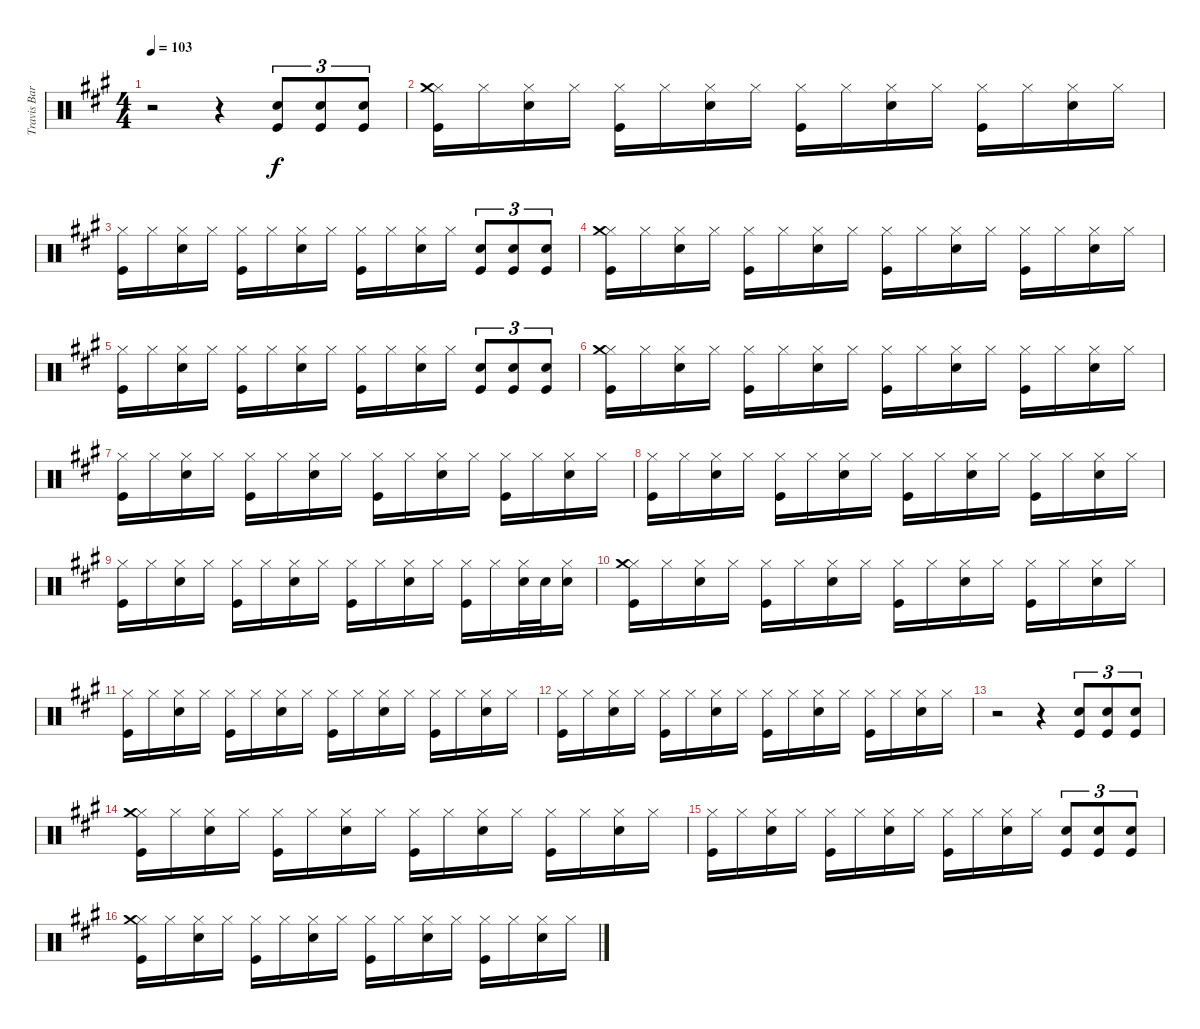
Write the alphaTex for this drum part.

\track ("Travis Barker (Schlagzeug)" "Travis Bar") {instrument percussion}
\staff {score}
\articulation defaults
\ts (4 4)
\tempo 103
\clef neutral
\ks a
r.2{dy f} r.4 ("Snare (hit) 2" "Kick (hit)").8{tu (3 2)} ("Snare (hit) 2" "Kick (hit)").8{tu (3 2)} ("Snare (hit) 2" "Kick (hit)").8{tu (3 2)} |
("Hi-Hat (closed)" "Crash medium (hit)" "Kick (hit)").16 "Hi-Hat (closed)".16 ("Hi-Hat (closed)" "Snare (hit) 2").16 "Hi-Hat (closed)".16 ("Hi-Hat (closed)" "Kick (hit)").16 "Hi-Hat (closed)".16 ("Hi-Hat (closed)" "Snare (hit) 2").16 "Hi-Hat (closed)".16 ("Hi-Hat (closed)" "Kick (hit)").16 "Hi-Hat (closed)".16 ("Hi-Hat (closed)" "Snare (hit) 2").16 "Hi-Hat (closed)".16 ("Hi-Hat (closed)" "Kick (hit)").16 "Hi-Hat (closed)".16 ("Hi-Hat (closed)" "Snare (hit) 2").16 "Hi-Hat (closed)".16 |
("Hi-Hat (closed)" "Kick (hit)").16 "Hi-Hat (closed)".16 ("Hi-Hat (closed)" "Snare (hit) 2").16 "Hi-Hat (closed)".16 ("Hi-Hat (closed)" "Kick (hit)").16 "Hi-Hat (closed)".16 ("Hi-Hat (closed)" "Snare (hit) 2").16 "Hi-Hat (closed)".16 ("Hi-Hat (closed)" "Kick (hit)").16 "Hi-Hat (closed)".16 ("Hi-Hat (closed)" "Snare (hit) 2").16 "Hi-Hat (closed)".16 ("Snare (hit) 2" "Kick (hit)").8{tu (3 2)} ("Snare (hit) 2" "Kick (hit)").8{tu (3 2)} ("Snare (hit) 2" "Kick (hit)").8{tu (3 2)} |
("Hi-Hat (closed)" "Crash medium (hit)" "Kick (hit)").16 "Hi-Hat (closed)".16 ("Hi-Hat (closed)" "Snare (hit) 2").16 "Hi-Hat (closed)".16 ("Hi-Hat (closed)" "Kick (hit)").16 "Hi-Hat (closed)".16 ("Hi-Hat (closed)" "Snare (hit) 2").16 "Hi-Hat (closed)".16 ("Hi-Hat (closed)" "Kick (hit)").16 "Hi-Hat (closed)".16 ("Hi-Hat (closed)" "Snare (hit) 2").16 "Hi-Hat (closed)".16 ("Hi-Hat (closed)" "Kick (hit)").16 "Hi-Hat (closed)".16 ("Hi-Hat (closed)" "Snare (hit) 2").16 "Hi-Hat (closed)".16 |
("Hi-Hat (closed)" "Kick (hit)").16 "Hi-Hat (closed)".16 ("Hi-Hat (closed)" "Snare (hit) 2").16 "Hi-Hat (closed)".16 ("Hi-Hat (closed)" "Kick (hit)").16 "Hi-Hat (closed)".16 ("Hi-Hat (closed)" "Snare (hit) 2").16 "Hi-Hat (closed)".16 ("Hi-Hat (closed)" "Kick (hit)").16 "Hi-Hat (closed)".16 ("Hi-Hat (closed)" "Snare (hit) 2").16 "Hi-Hat (closed)".16 ("Snare (hit) 2" "Kick (hit)").8{tu (3 2)} ("Snare (hit) 2" "Kick (hit)").8{tu (3 2)} ("Snare (hit) 2" "Kick (hit)").8{tu (3 2)} |
("Hi-Hat (closed)" "Crash medium (hit)" "Kick (hit)").16 "Hi-Hat (closed)".16 ("Hi-Hat (closed)" "Snare (hit) 2").16 "Hi-Hat (closed)".16 ("Hi-Hat (closed)" "Kick (hit)").16 "Hi-Hat (closed)".16 ("Hi-Hat (closed)" "Snare (hit) 2").16 "Hi-Hat (closed)".16 ("Hi-Hat (closed)" "Kick (hit)").16 "Hi-Hat (closed)".16 ("Hi-Hat (closed)" "Snare (hit) 2").16 "Hi-Hat (closed)".16 ("Hi-Hat (closed)" "Kick (hit)").16 "Hi-Hat (closed)".16 ("Hi-Hat (closed)" "Snare (hit) 2").16 "Hi-Hat (closed)".16 |
("Hi-Hat (closed)" "Kick (hit)").16 "Hi-Hat (closed)".16 ("Hi-Hat (closed)" "Snare (hit) 2").16 "Hi-Hat (closed)".16 ("Hi-Hat (closed)" "Kick (hit)").16 "Hi-Hat (closed)".16 ("Hi-Hat (closed)" "Snare (hit) 2").16 "Hi-Hat (closed)".16 ("Hi-Hat (closed)" "Kick (hit)").16 "Hi-Hat (closed)".16 ("Hi-Hat (closed)" "Snare (hit) 2").16 "Hi-Hat (closed)".16 ("Hi-Hat (closed)" "Kick (hit)").16 "Hi-Hat (closed)".16 ("Hi-Hat (closed)" "Snare (hit) 2").16 "Hi-Hat (closed)".16 |
("Hi-Hat (closed)" "Kick (hit)").16 "Hi-Hat (closed)".16 ("Hi-Hat (closed)" "Snare (hit) 2").16 "Hi-Hat (closed)".16 ("Hi-Hat (closed)" "Kick (hit)").16 "Hi-Hat (closed)".16 ("Hi-Hat (closed)" "Snare (hit) 2").16 "Hi-Hat (closed)".16 ("Hi-Hat (closed)" "Kick (hit)").16 "Hi-Hat (closed)".16 ("Hi-Hat (closed)" "Snare (hit) 2").16 "Hi-Hat (closed)".16 ("Hi-Hat (closed)" "Kick (hit)").16 "Hi-Hat (closed)".16 ("Hi-Hat (closed)" "Snare (hit) 2").16 "Hi-Hat (closed)".16 |
("Hi-Hat (closed)" "Kick (hit)").16 "Hi-Hat (closed)".16 ("Hi-Hat (closed)" "Snare (hit) 2").16 "Hi-Hat (closed)".16 ("Hi-Hat (closed)" "Kick (hit)").16 "Hi-Hat (closed)".16 ("Hi-Hat (closed)" "Snare (hit) 2").16 "Hi-Hat (closed)".16 ("Hi-Hat (closed)" "Kick (hit)").16 "Hi-Hat (closed)".16 ("Hi-Hat (closed)" "Snare (hit) 2").16 "Hi-Hat (closed)".16 ("Hi-Hat (closed)" "Kick (hit)").16 "Hi-Hat (closed)".16 ("Hi-Hat (closed)" "Snare (hit) 2").32 "Snare (hit) 2".32 ("Hi-Hat (closed)" "Snare (hit) 2").16 |
("Hi-Hat (closed)" "Crash medium (hit)" "Kick (hit)").16 "Hi-Hat (closed)".16 ("Hi-Hat (closed)" "Snare (hit) 2").16 "Hi-Hat (closed)".16 ("Hi-Hat (closed)" "Kick (hit)").16 "Hi-Hat (closed)".16 ("Hi-Hat (closed)" "Snare (hit) 2").16 "Hi-Hat (closed)".16 ("Hi-Hat (closed)" "Kick (hit)").16 "Hi-Hat (closed)".16 ("Hi-Hat (closed)" "Snare (hit) 2").16 "Hi-Hat (closed)".16 ("Hi-Hat (closed)" "Kick (hit)").16 "Hi-Hat (closed)".16 ("Hi-Hat (closed)" "Snare (hit) 2").16 "Hi-Hat (closed)".16 |
("Hi-Hat (closed)" "Kick (hit)").16 "Hi-Hat (closed)".16 ("Hi-Hat (closed)" "Snare (hit) 2").16 "Hi-Hat (closed)".16 ("Hi-Hat (closed)" "Kick (hit)").16 "Hi-Hat (closed)".16 ("Hi-Hat (closed)" "Snare (hit) 2").16 "Hi-Hat (closed)".16 ("Hi-Hat (closed)" "Kick (hit)").16 "Hi-Hat (closed)".16 ("Hi-Hat (closed)" "Snare (hit) 2").16 "Hi-Hat (closed)".16 ("Hi-Hat (closed)" "Kick (hit)").16 "Hi-Hat (closed)".16 ("Hi-Hat (closed)" "Snare (hit) 2").16 "Hi-Hat (closed)".16 |
("Hi-Hat (closed)" "Kick (hit)").16 "Hi-Hat (closed)".16 ("Hi-Hat (closed)" "Snare (hit) 2").16 "Hi-Hat (closed)".16 ("Hi-Hat (closed)" "Kick (hit)").16 "Hi-Hat (closed)".16 ("Hi-Hat (closed)" "Snare (hit) 2").16 "Hi-Hat (closed)".16 ("Hi-Hat (closed)" "Kick (hit)").16 "Hi-Hat (closed)".16 ("Hi-Hat (closed)" "Snare (hit) 2").16 "Hi-Hat (closed)".16 ("Hi-Hat (closed)" "Kick (hit)").16 "Hi-Hat (closed)".16 ("Hi-Hat (closed)" "Snare (hit) 2").16 "Hi-Hat (closed)".16 |
r.2 r.4 ("Snare (hit) 2" "Kick (hit)").8{tu (3 2)} ("Snare (hit) 2" "Kick (hit)").8{tu (3 2)} ("Snare (hit) 2" "Kick (hit)").8{tu (3 2)} |
("Hi-Hat (closed)" "Crash medium (hit)" "Kick (hit)").16 "Hi-Hat (closed)".16 ("Hi-Hat (closed)" "Snare (hit) 2").16 "Hi-Hat (closed)".16 ("Hi-Hat (closed)" "Kick (hit)").16 "Hi-Hat (closed)".16 ("Hi-Hat (closed)" "Snare (hit) 2").16 "Hi-Hat (closed)".16 ("Hi-Hat (closed)" "Kick (hit)").16 "Hi-Hat (closed)".16 ("Hi-Hat (closed)" "Snare (hit) 2").16 "Hi-Hat (closed)".16 ("Hi-Hat (closed)" "Kick (hit)").16 "Hi-Hat (closed)".16 ("Hi-Hat (closed)" "Snare (hit) 2").16 "Hi-Hat (closed)".16 |
("Hi-Hat (closed)" "Kick (hit)").16 "Hi-Hat (closed)".16 ("Hi-Hat (closed)" "Snare (hit) 2").16 "Hi-Hat (closed)".16 ("Hi-Hat (closed)" "Kick (hit)").16 "Hi-Hat (closed)".16 ("Hi-Hat (closed)" "Snare (hit) 2").16 "Hi-Hat (closed)".16 ("Hi-Hat (closed)" "Kick (hit)").16 "Hi-Hat (closed)".16 ("Hi-Hat (closed)" "Snare (hit) 2").16 "Hi-Hat (closed)".16 ("Snare (hit) 2" "Kick (hit)").8{tu (3 2)} ("Snare (hit) 2" "Kick (hit)").8{tu (3 2)} ("Snare (hit) 2" "Kick (hit)").8{tu (3 2)} |
("Hi-Hat (closed)" "Crash medium (hit)" "Kick (hit)").16 "Hi-Hat (closed)".16 ("Hi-Hat (closed)" "Snare (hit) 2").16 "Hi-Hat (closed)".16 ("Hi-Hat (closed)" "Kick (hit)").16 "Hi-Hat (closed)".16 ("Hi-Hat (closed)" "Snare (hit) 2").16 "Hi-Hat (closed)".16 ("Hi-Hat (closed)" "Kick (hit)").16 "Hi-Hat (closed)".16 ("Hi-Hat (closed)" "Snare (hit) 2").16 "Hi-Hat (closed)".16 ("Hi-Hat (closed)" "Kick (hit)").16 "Hi-Hat (closed)".16 ("Hi-Hat (closed)" "Snare (hit) 2").16 "Hi-Hat (closed)".16
